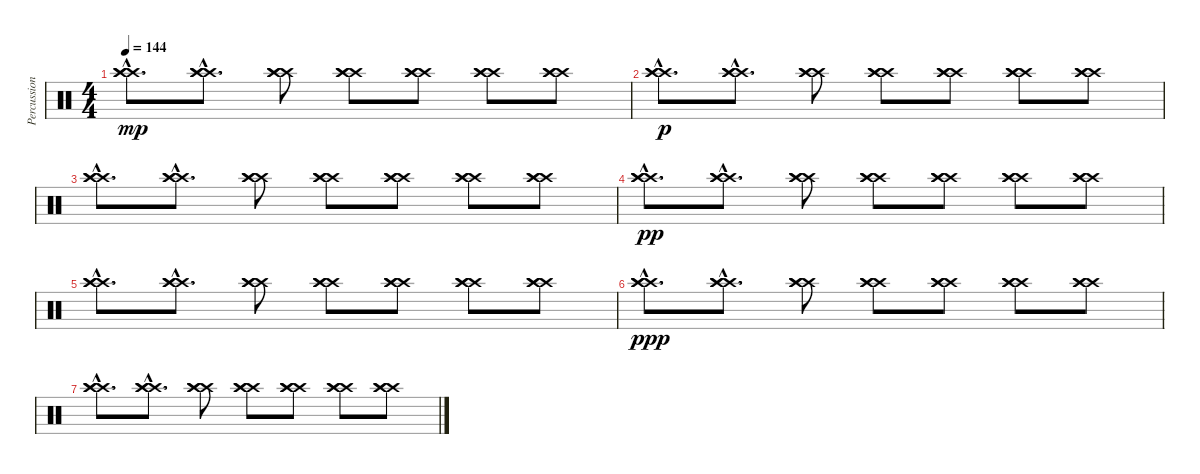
\track ("Percussion 2" "Percussion") {instrument percussion}
\staff {score}
\articulation defaults
\ts (4 4)
\tempo 144
\clef neutral
\ks c
("Crash high (hit)"{hac} "Crash high (hit)"{hac} "Crash high (hit)"{hac}).8{d dy mp} ("Crash high (hit)"{hac} "Crash high (hit)" "Crash high (hit)").8{d} ("Crash high (hit)" "Crash high (hit)" "Crash high (hit)").8 ("Crash high (hit)" "Crash high (hit)" "Crash high (hit)").8 ("Crash high (hit)" "Crash high (hit)" "Crash high (hit)").8 ("Crash high (hit)" "Crash high (hit)" "Crash high (hit)").8 ("Crash high (hit)" "Crash high (hit)" "Crash high (hit)").8 |
("Crash high (hit)"{hac} "Crash high (hit)"{hac} "Crash high (hit)"{hac}).8{d dy p} ("Crash high (hit)"{hac} "Crash high (hit)" "Crash high (hit)").8{d} ("Crash high (hit)" "Crash high (hit)" "Crash high (hit)").8 ("Crash high (hit)" "Crash high (hit)" "Crash high (hit)").8 ("Crash high (hit)" "Crash high (hit)" "Crash high (hit)").8 ("Crash high (hit)" "Crash high (hit)" "Crash high (hit)").8 ("Crash high (hit)" "Crash high (hit)" "Crash high (hit)").8 |
("Crash high (hit)"{hac} "Crash high (hit)"{hac} "Crash high (hit)"{hac}).8{d} ("Crash high (hit)"{hac} "Crash high (hit)" "Crash high (hit)").8{d} ("Crash high (hit)" "Crash high (hit)" "Crash high (hit)").8 ("Crash high (hit)" "Crash high (hit)" "Crash high (hit)").8 ("Crash high (hit)" "Crash high (hit)" "Crash high (hit)").8 ("Crash high (hit)" "Crash high (hit)" "Crash high (hit)").8 ("Crash high (hit)" "Crash high (hit)" "Crash high (hit)").8 |
("Crash high (hit)"{hac} "Crash high (hit)"{hac} "Crash high (hit)"{hac}).8{d dy pp} ("Crash high (hit)"{hac} "Crash high (hit)" "Crash high (hit)").8{d} ("Crash high (hit)" "Crash high (hit)" "Crash high (hit)").8 ("Crash high (hit)" "Crash high (hit)" "Crash high (hit)").8 ("Crash high (hit)" "Crash high (hit)" "Crash high (hit)").8 ("Crash high (hit)" "Crash high (hit)" "Crash high (hit)").8 ("Crash high (hit)" "Crash high (hit)" "Crash high (hit)").8 |
("Crash high (hit)"{hac} "Crash high (hit)"{hac} "Crash high (hit)"{hac}).8{d} ("Crash high (hit)"{hac} "Crash high (hit)" "Crash high (hit)").8{d} ("Crash high (hit)" "Crash high (hit)" "Crash high (hit)").8 ("Crash high (hit)" "Crash high (hit)" "Crash high (hit)").8 ("Crash high (hit)" "Crash high (hit)" "Crash high (hit)").8 ("Crash high (hit)" "Crash high (hit)" "Crash high (hit)").8 ("Crash high (hit)" "Crash high (hit)" "Crash high (hit)").8 |
("Crash high (hit)"{hac} "Crash high (hit)"{hac} "Crash high (hit)"{hac}).8{d dy ppp} ("Crash high (hit)"{hac} "Crash high (hit)" "Crash high (hit)").8{d} ("Crash high (hit)" "Crash high (hit)" "Crash high (hit)").8 ("Crash high (hit)" "Crash high (hit)" "Crash high (hit)").8 ("Crash high (hit)" "Crash high (hit)" "Crash high (hit)").8 ("Crash high (hit)" "Crash high (hit)" "Crash high (hit)").8 ("Crash high (hit)" "Crash high (hit)" "Crash high (hit)").8 |
("Crash high (hit)"{hac} "Crash high (hit)"{hac} "Crash high (hit)"{hac}).8{d} ("Crash high (hit)"{hac} "Crash high (hit)" "Crash high (hit)").8{d} ("Crash high (hit)" "Crash high (hit)" "Crash high (hit)").8 ("Crash high (hit)" "Crash high (hit)" "Crash high (hit)").8 ("Crash high (hit)" "Crash high (hit)" "Crash high (hit)").8 ("Crash high (hit)" "Crash high (hit)" "Crash high (hit)").8 ("Crash high (hit)" "Crash high (hit)" "Crash high (hit)").8
